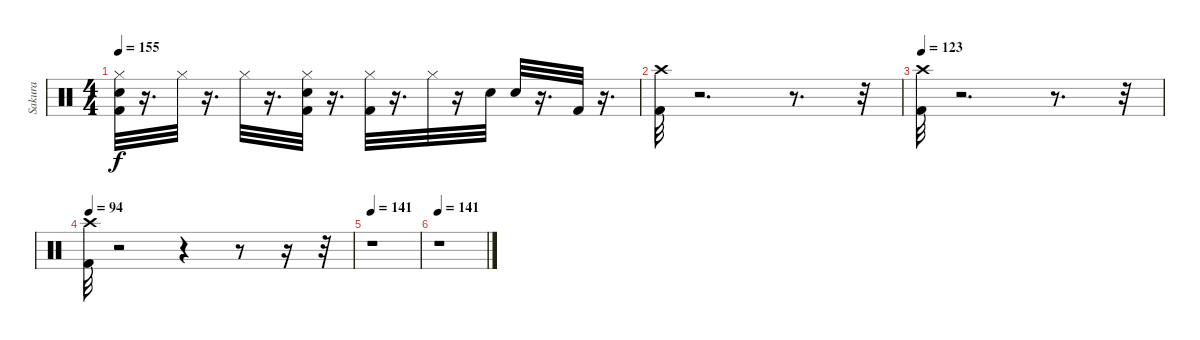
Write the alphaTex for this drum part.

\track ("Sakura" "Sakura") {instrument percussion}
\staff {score}
\articulation defaults
\ts (4 4)
\tempo 155
\clef neutral
\ks c
("Hi-Hat (closed)" "Snare (hit) 2" "Kick (hit) 2").32{dy f} r.16{d} "Hi-Hat (closed)".32 r.16{d} "Hi-Hat (closed)".32 r.16{d} ("Hi-Hat (closed)" "Kick (hit) 2" "Snare (hit) 2").32 r.16{d} ("Hi-Hat (closed)" "Kick (hit) 2").32 r.16{d} "Hi-Hat (closed)".32 r.16 "Snare (hit) 2".32 "Snare (hit) 2".32 r.16{d} "Kick (hit) 2".32 r.16{d} |
("Crash high (hit)" "Kick (hit) 2").32 r.2{d} r.8{d} r.32 |
\tempo 123
("Crash high (hit)" "Kick (hit) 2").32 r.2{d} r.8{d} r.32 |
\tempo 94
("Crash high (hit)" "Kick (hit) 2").32 r.2 r.4 r.8 r.16 r.32 |
\tempo 141
r.1 |
\tempo 141
r.1
